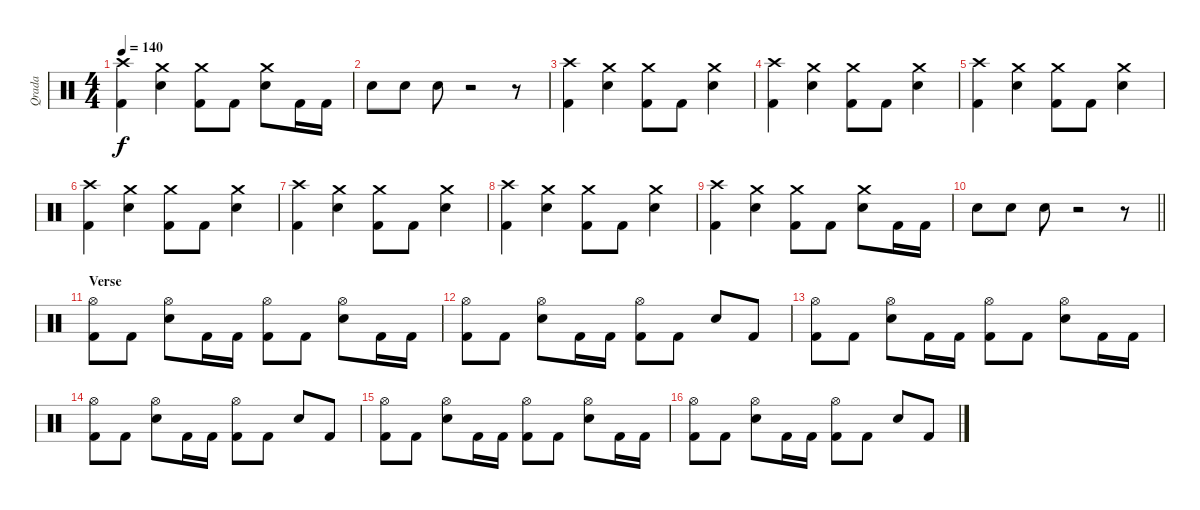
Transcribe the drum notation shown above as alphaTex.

\track ("Qrada" "Qrada") {instrument percussion}
\staff {score}
\articulation defaults
\ts (4 4)
\tempo 140
\clef neutral
\ks c
("Kick (hit) 2" "Crash high (hit)").4{dy f} ("Snare (hit) 2" "Crash medium (hit)").4 ("Kick (hit) 2" "Crash medium (hit)").8 "Kick (hit) 2".8 ("Snare (hit) 2" "Crash medium (hit)").8 "Kick (hit) 2".16 "Kick (hit) 2".16 |
"Snare (hit) 2".8 "Snare (hit) 2".8 "Snare (hit) 2".8 r.2 r.8 |
("Kick (hit) 2" "Crash high (hit)").4 ("Snare (hit) 2" "Crash medium (hit)").4 ("Kick (hit) 2" "Crash medium (hit)").8 "Kick (hit) 2".8 ("Snare (hit) 2" "Crash medium (hit)").4 |
("Kick (hit) 2" "Crash high (hit)").4 ("Snare (hit) 2" "Crash medium (hit)").4 ("Kick (hit) 2" "Crash medium (hit)").8 "Kick (hit) 2".8 ("Snare (hit) 2" "Crash medium (hit)").4 |
("Kick (hit) 2" "Crash high (hit)").4 ("Snare (hit) 2" "Crash medium (hit)").4 ("Kick (hit) 2" "Crash medium (hit)").8 "Kick (hit) 2".8 ("Snare (hit) 2" "Crash medium (hit)").4 |
("Kick (hit) 2" "Crash high (hit)").4 ("Snare (hit) 2" "Crash medium (hit)").4 ("Kick (hit) 2" "Crash medium (hit)").8 "Kick (hit) 2".8 ("Snare (hit) 2" "Crash medium (hit)").4 |
("Kick (hit) 2" "Crash high (hit)").4 ("Snare (hit) 2" "Crash medium (hit)").4 ("Kick (hit) 2" "Crash medium (hit)").8 "Kick (hit) 2".8 ("Snare (hit) 2" "Crash medium (hit)").4 |
("Kick (hit) 2" "Crash high (hit)").4 ("Snare (hit) 2" "Crash medium (hit)").4 ("Kick (hit) 2" "Crash medium (hit)").8 "Kick (hit) 2".8 ("Snare (hit) 2" "Crash medium (hit)").4 |
("Kick (hit) 2" "Crash high (hit)").4 ("Snare (hit) 2" "Crash medium (hit)").4 ("Kick (hit) 2" "Crash medium (hit)").8 "Kick (hit) 2".8 ("Snare (hit) 2" "Crash medium (hit)").8 "Kick (hit) 2".16 "Kick (hit) 2".16 |
\barLineRight lightlight "Snare (hit) 2".8 "Snare (hit) 2".8 "Snare (hit) 2".8
r.2 r.8 |
\section ("" "Verse")
("Kick (hit) 2" "Hi-Hat (open)").8 "Kick (hit) 2".8 ("Snare (hit) 2" "Hi-Hat (open)").8 "Kick (hit) 2".16 "Kick (hit) 2".16 ("Kick (hit) 2" "Hi-Hat (open)").8 "Kick (hit) 2".8 ("Snare (hit) 2" "Hi-Hat (open)").8 "Kick (hit) 2".16 "Kick (hit) 2".16 |
("Kick (hit) 2" "Hi-Hat (open)").8 "Kick (hit) 2".8 ("Snare (hit) 2" "Hi-Hat (open)").8 "Kick (hit) 2".16 "Kick (hit) 2".16 ("Kick (hit) 2" "Hi-Hat (open)").8 "Kick (hit) 2".8 "Snare (hit) 2".8 "Kick (hit) 2".8 |
("Kick (hit) 2" "Hi-Hat (open)").8 "Kick (hit) 2".8 ("Snare (hit) 2" "Hi-Hat (open)").8 "Kick (hit) 2".16 "Kick (hit) 2".16 ("Kick (hit) 2" "Hi-Hat (open)").8 "Kick (hit) 2".8 ("Snare (hit) 2" "Hi-Hat (open)").8 "Kick (hit) 2".16 "Kick (hit) 2".16 |
("Kick (hit) 2" "Hi-Hat (open)").8 "Kick (hit) 2".8 ("Snare (hit) 2" "Hi-Hat (open)").8 "Kick (hit) 2".16 "Kick (hit) 2".16 ("Kick (hit) 2" "Hi-Hat (open)").8 "Kick (hit) 2".8 "Snare (hit) 2".8 "Kick (hit) 2".8 |
("Kick (hit) 2" "Hi-Hat (open)").8 "Kick (hit) 2".8 ("Snare (hit) 2" "Hi-Hat (open)").8 "Kick (hit) 2".16 "Kick (hit) 2".16 ("Kick (hit) 2" "Hi-Hat (open)").8 "Kick (hit) 2".8 ("Snare (hit) 2" "Hi-Hat (open)").8 "Kick (hit) 2".16 "Kick (hit) 2".16 |
("Kick (hit) 2" "Hi-Hat (open)").8 "Kick (hit) 2".8 ("Snare (hit) 2" "Hi-Hat (open)").8 "Kick (hit) 2".16 "Kick (hit) 2".16 ("Kick (hit) 2" "Hi-Hat (open)").8 "Kick (hit) 2".8 "Snare (hit) 2".8 "Kick (hit) 2".8
